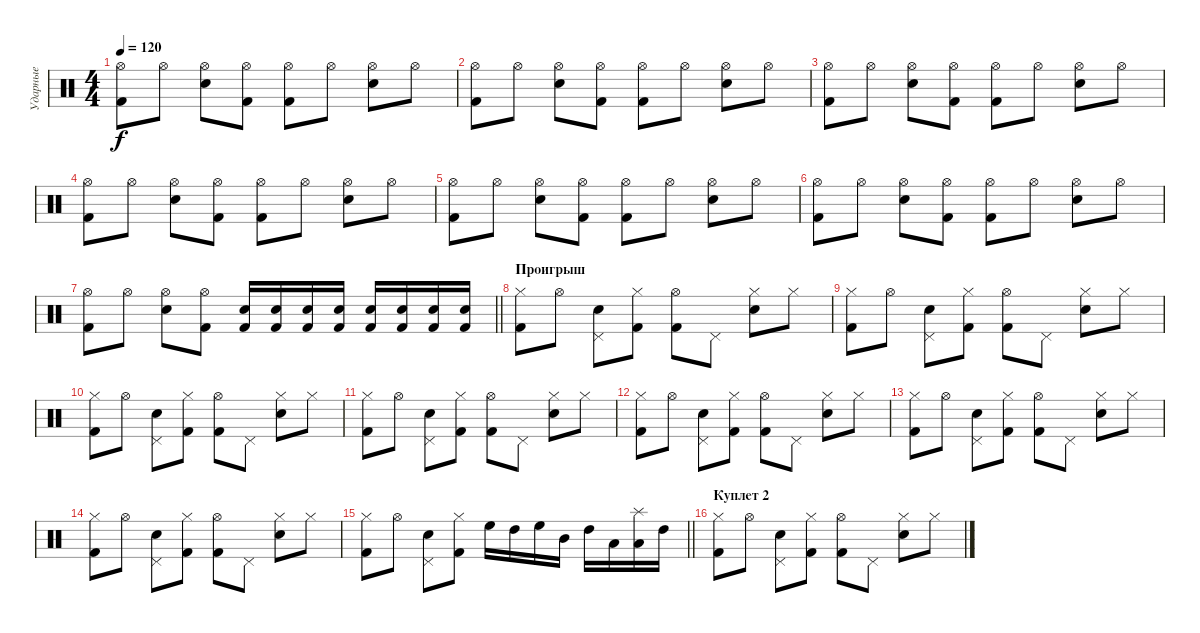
\track ("Ударные" "Ударные") {instrument percussion}
\staff {score}
\articulation defaults
\ts (4 4)
\tempo 120
\clef neutral
\ks c
("Hi-Hat (open)" "Kick (hit) 2").8{dy f} "Hi-Hat (open)".8 ("Hi-Hat (open)" "Snare (hit) 2").8 ("Hi-Hat (open)" "Kick (hit) 2").8 ("Hi-Hat (open)" "Kick (hit) 2").8 "Hi-Hat (open)".8 ("Hi-Hat (open)" "Snare (hit) 2").8 "Hi-Hat (open)".8 |
("Hi-Hat (open)" "Kick (hit) 2").8 "Hi-Hat (open)".8 ("Hi-Hat (open)" "Snare (hit) 2").8 ("Hi-Hat (open)" "Kick (hit) 2").8 ("Hi-Hat (open)" "Kick (hit) 2").8 "Hi-Hat (open)".8 ("Hi-Hat (open)" "Snare (hit) 2").8 "Hi-Hat (open)".8 |
("Hi-Hat (open)" "Kick (hit) 2").8 "Hi-Hat (open)".8 ("Hi-Hat (open)" "Snare (hit) 2").8 ("Hi-Hat (open)" "Kick (hit) 2").8 ("Hi-Hat (open)" "Kick (hit) 2").8 "Hi-Hat (open)".8 ("Hi-Hat (open)" "Snare (hit) 2").8 "Hi-Hat (open)".8 |
("Hi-Hat (open)" "Kick (hit) 2").8 "Hi-Hat (open)".8 ("Hi-Hat (open)" "Snare (hit) 2").8 ("Hi-Hat (open)" "Kick (hit) 2").8 ("Hi-Hat (open)" "Kick (hit) 2").8 "Hi-Hat (open)".8 ("Hi-Hat (open)" "Snare (hit) 2").8 "Hi-Hat (open)".8 |
("Hi-Hat (open)" "Kick (hit) 2").8 "Hi-Hat (open)".8 ("Hi-Hat (open)" "Snare (hit) 2").8 ("Hi-Hat (open)" "Kick (hit) 2").8 ("Hi-Hat (open)" "Kick (hit) 2").8 "Hi-Hat (open)".8 ("Hi-Hat (open)" "Snare (hit) 2").8 "Hi-Hat (open)".8 |
("Hi-Hat (open)" "Kick (hit) 2").8 "Hi-Hat (open)".8 ("Hi-Hat (open)" "Snare (hit) 2").8 ("Hi-Hat (open)" "Kick (hit) 2").8 ("Hi-Hat (open)" "Kick (hit) 2").8 "Hi-Hat (open)".8 ("Hi-Hat (open)" "Snare (hit) 2").8 "Hi-Hat (open)".8 |
\barLineRight lightlight
("Hi-Hat (open)" "Kick (hit) 2").8 "Hi-Hat (open)".8 ("Hi-Hat (open)" "Snare (hit) 2").8 ("Hi-Hat (open)" "Kick (hit) 2").8 ("Snare (hit) 2" "Kick (hit) 2").16 ("Snare (hit) 2" "Kick (hit) 2").16 ("Snare (hit) 2" "Kick (hit) 2").16 ("Snare (hit) 2" "Kick (hit) 2").16 ("Snare (hit) 2" "Kick (hit) 2").16 ("Snare (hit) 2" "Kick (hit) 2").16 ("Snare (hit) 2" "Kick (hit) 2").16 ("Snare (hit) 2" "Kick (hit) 2").16 |
\section ("" "Проигрыш")
("Hi-Hat (closed)" "Kick (hit) 2").8 "Hi-Hat (open)".8 ("Pedal Hi-Hat (hit)" "Snare (hit) 2").8 ("Hi-Hat (closed)" "Kick (hit) 2").8 ("Hi-Hat (open)" "Kick (hit) 2").8 "Pedal Hi-Hat (hit)".8 ("Hi-Hat (closed)" "Snare (hit) 2").8 "Hi-Hat (closed)".8 |
("Hi-Hat (closed)" "Kick (hit) 2").8 "Hi-Hat (open)".8 ("Pedal Hi-Hat (hit)" "Snare (hit) 2").8 ("Hi-Hat (closed)" "Kick (hit) 2").8 ("Hi-Hat (open)" "Kick (hit) 2").8 "Pedal Hi-Hat (hit)".8 ("Hi-Hat (closed)" "Snare (hit) 2").8 "Hi-Hat (closed)".8 |
("Hi-Hat (closed)" "Kick (hit) 2").8 "Hi-Hat (open)".8 ("Pedal Hi-Hat (hit)" "Snare (hit) 2").8 ("Hi-Hat (closed)" "Kick (hit) 2").8 ("Hi-Hat (open)" "Kick (hit) 2").8 "Pedal Hi-Hat (hit)".8 ("Hi-Hat (closed)" "Snare (hit) 2").8 "Hi-Hat (closed)".8 |
("Hi-Hat (closed)" "Kick (hit) 2").8 "Hi-Hat (open)".8 ("Pedal Hi-Hat (hit)" "Snare (hit) 2").8 ("Hi-Hat (closed)" "Kick (hit) 2").8 ("Hi-Hat (open)" "Kick (hit) 2").8 "Pedal Hi-Hat (hit)".8 ("Hi-Hat (closed)" "Snare (hit) 2").8 "Hi-Hat (closed)".8 |
("Hi-Hat (closed)" "Kick (hit) 2").8 "Hi-Hat (open)".8 ("Pedal Hi-Hat (hit)" "Snare (hit) 2").8 ("Hi-Hat (closed)" "Kick (hit) 2").8 ("Hi-Hat (open)" "Kick (hit) 2").8 "Pedal Hi-Hat (hit)".8 ("Hi-Hat (closed)" "Snare (hit) 2").8 "Hi-Hat (closed)".8 |
("Hi-Hat (closed)" "Kick (hit) 2").8 "Hi-Hat (open)".8 ("Pedal Hi-Hat (hit)" "Snare (hit) 2").8 ("Hi-Hat (closed)" "Kick (hit) 2").8 ("Hi-Hat (open)" "Kick (hit) 2").8 "Pedal Hi-Hat (hit)".8 ("Hi-Hat (closed)" "Snare (hit) 2").8 "Hi-Hat (closed)".8 |
("Hi-Hat (closed)" "Kick (hit) 2").8 "Hi-Hat (open)".8 ("Pedal Hi-Hat (hit)" "Snare (hit) 2").8 ("Hi-Hat (closed)" "Kick (hit) 2").8 ("Hi-Hat (open)" "Kick (hit) 2").8 "Pedal Hi-Hat (hit)".8 ("Hi-Hat (closed)" "Snare (hit) 2").8 "Hi-Hat (closed)".8 |
\barLineRight lightlight
("Hi-Hat (closed)" "Kick (hit) 2").8 "Hi-Hat (open)".8 ("Pedal Hi-Hat (hit)" "Snare (hit) 2").8 ("Hi-Hat (closed)" "Kick (hit) 2").8 "High Floor Tom (hit)".16 "High Tom (hit)".16 "High Floor Tom (hit)".16 "Mid Tom (hit)".16 "High Tom (hit)".16 "Low Tom (hit)".16 ("Low Tom (hit)" "Splash (hit)").16 "High Tom (hit)".16 |
\section ("" "Куплет 2")
("Hi-Hat (closed)" "Kick (hit) 2").8 "Hi-Hat (open)".8 ("Pedal Hi-Hat (hit)" "Snare (hit) 2").8 ("Hi-Hat (closed)" "Kick (hit) 2").8 ("Hi-Hat (open)" "Kick (hit) 2").8 "Pedal Hi-Hat (hit)".8 ("Hi-Hat (closed)" "Snare (hit) 2").8 "Hi-Hat (closed)".8
